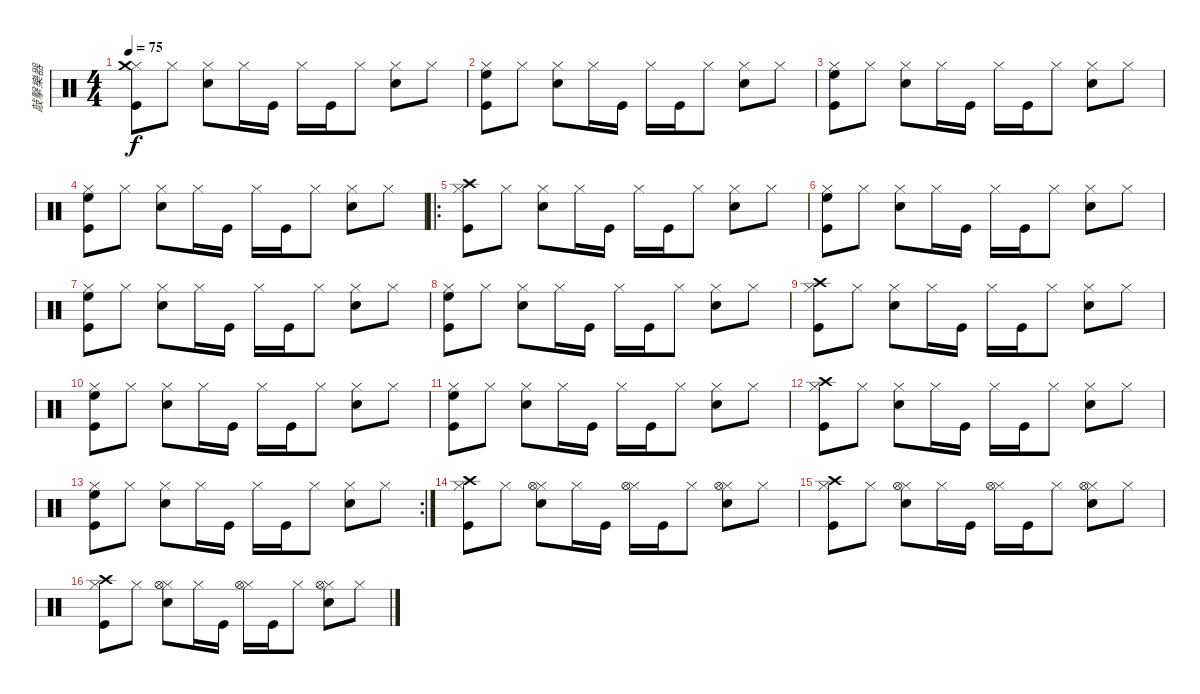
\track ("敲擊樂器" "敲擊樂器") {instrument percussion}
\staff {score}
\articulation defaults
\ts (4 4)
\tempo 75
\clef neutral
\ks c
("Hi-Hat (closed)" "Crash medium (hit)" "Kick (hit)").8{dy f} "Hi-Hat (closed)".8 ("Hi-Hat (closed)" "Snare (hit) 2").8 "Hi-Hat (closed)".16 "Kick (hit)".16 "Hi-Hat (closed)".16 "Kick (hit)".16 "Hi-Hat (closed)".8 ("Hi-Hat (closed)" "Snare (hit) 2").8 "Hi-Hat (closed)".8 |
("Hi-Hat (closed)" "High Floor Tom (hit)" "Kick (hit)").8 "Hi-Hat (closed)".8 ("Hi-Hat (closed)" "Snare (hit) 2").8 "Hi-Hat (closed)".16 "Kick (hit)".16 "Hi-Hat (closed)".16 "Kick (hit)".16 "Hi-Hat (closed)".8 ("Hi-Hat (closed)" "Snare (hit) 2").8 "Hi-Hat (closed)".8 |
("Hi-Hat (closed)" "High Floor Tom (hit)" "Kick (hit)").8 "Hi-Hat (closed)".8 ("Hi-Hat (closed)" "Snare (hit) 2").8 "Hi-Hat (closed)".16 "Kick (hit)".16 "Hi-Hat (closed)".16 "Kick (hit)".16 "Hi-Hat (closed)".8 ("Hi-Hat (closed)" "Snare (hit) 2").8 "Hi-Hat (closed)".8 |
("Hi-Hat (closed)" "High Floor Tom (hit)" "Kick (hit)").8 "Hi-Hat (closed)".8 ("Hi-Hat (closed)" "Snare (hit) 2").8 "Hi-Hat (closed)".16 "Kick (hit)".16 "Hi-Hat (closed)".16 "Kick (hit)".16 "Hi-Hat (closed)".8 ("Hi-Hat (closed)" "Snare (hit) 2").8 "Hi-Hat (closed)".8 |
\ro
("Hi-Hat (closed)" "Crash high (hit)" "Kick (hit)").8 "Hi-Hat (closed)".8 ("Hi-Hat (closed)" "Snare (hit) 2").8 "Hi-Hat (closed)".16 "Kick (hit)".16 "Hi-Hat (closed)".16 "Kick (hit)".16 "Hi-Hat (closed)".8 ("Hi-Hat (closed)" "Snare (hit) 2").8 "Hi-Hat (closed)".8 |
("Hi-Hat (closed)" "High Floor Tom (hit)" "Kick (hit)").8 "Hi-Hat (closed)".8 ("Hi-Hat (closed)" "Snare (hit) 2").8 "Hi-Hat (closed)".16 "Kick (hit)".16 "Hi-Hat (closed)".16 "Kick (hit)".16 "Hi-Hat (closed)".8 ("Hi-Hat (closed)" "Snare (hit) 2").8 "Hi-Hat (closed)".8 |
("Hi-Hat (closed)" "High Floor Tom (hit)" "Kick (hit)").8 "Hi-Hat (closed)".8 ("Hi-Hat (closed)" "Snare (hit) 2").8 "Hi-Hat (closed)".16 "Kick (hit)".16 "Hi-Hat (closed)".16 "Kick (hit)".16 "Hi-Hat (closed)".8 ("Hi-Hat (closed)" "Snare (hit) 2").8 "Hi-Hat (closed)".8 |
("Hi-Hat (closed)" "High Floor Tom (hit)" "Kick (hit)").8 "Hi-Hat (closed)".8 ("Hi-Hat (closed)" "Snare (hit) 2").8 "Hi-Hat (closed)".16 "Kick (hit)".16 "Hi-Hat (closed)".16 "Kick (hit)".16 "Hi-Hat (closed)".8 ("Hi-Hat (closed)" "Snare (hit) 2").8 "Hi-Hat (closed)".8 |
("Hi-Hat (closed)" "Crash high (hit)" "Kick (hit)").8 "Hi-Hat (closed)".8 ("Hi-Hat (closed)" "Snare (hit) 2").8 "Hi-Hat (closed)".16 "Kick (hit)".16 "Hi-Hat (closed)".16 "Kick (hit)".16 "Hi-Hat (closed)".8 ("Hi-Hat (closed)" "Snare (hit) 2").8 "Hi-Hat (closed)".8 |
("Hi-Hat (closed)" "High Floor Tom (hit)" "Kick (hit)").8 "Hi-Hat (closed)".8 ("Hi-Hat (closed)" "Snare (hit) 2").8 "Hi-Hat (closed)".16 "Kick (hit)".16 "Hi-Hat (closed)".16 "Kick (hit)".16 "Hi-Hat (closed)".8 ("Hi-Hat (closed)" "Snare (hit) 2").8 "Hi-Hat (closed)".8 |
("Hi-Hat (closed)" "High Floor Tom (hit)" "Kick (hit)").8 "Hi-Hat (closed)".8 ("Hi-Hat (closed)" "Snare (hit) 2").8 "Hi-Hat (closed)".16 "Kick (hit)".16 "Hi-Hat (closed)".16 "Kick (hit)".16 "Hi-Hat (closed)".8 ("Hi-Hat (closed)" "Snare (hit) 2").8 "Hi-Hat (closed)".8 |
("Hi-Hat (closed)" "Crash high (hit)" "Kick (hit)").8 "Hi-Hat (closed)".8 ("Hi-Hat (closed)" "Snare (hit) 2").8 "Hi-Hat (closed)".16 "Kick (hit)".16 "Hi-Hat (closed)".16 "Kick (hit)".16 "Hi-Hat (closed)".8 ("Hi-Hat (closed)" "Snare (hit) 2").8 "Hi-Hat (closed)".8 |
\rc 2
("Hi-Hat (closed)" "High Floor Tom (hit)" "Kick (hit)").8 "Hi-Hat (closed)".8 ("Hi-Hat (closed)" "Snare (hit) 2").8 "Hi-Hat (closed)".16 "Kick (hit)".16 "Hi-Hat (closed)".16 "Kick (hit)".16 "Hi-Hat (closed)".8 ("Hi-Hat (closed)" "Snare (hit) 2").8 "Hi-Hat (closed)".8 |
("Hi-Hat (closed)" "Crash high (hit)" "Kick (hit)").8 "Hi-Hat (closed)".8 ("Hi-Hat (closed)" "Snare (hit) 2" "Hi-Hat (open)").8 "Hi-Hat (closed)".16 "Kick (hit)".16 ("Hi-Hat (closed)" "Hi-Hat (open)").16 "Kick (hit)".16 "Hi-Hat (closed)".8 ("Hi-Hat (closed)" "Snare (hit) 2" "Hi-Hat (open)").8 "Hi-Hat (closed)".8 |
("Hi-Hat (closed)" "Crash high (hit)" "Kick (hit)").8 "Hi-Hat (closed)".8 ("Hi-Hat (closed)" "Snare (hit) 2" "Hi-Hat (open)").8 "Hi-Hat (closed)".16 "Kick (hit)".16 ("Hi-Hat (closed)" "Hi-Hat (open)").16 "Kick (hit)".16 "Hi-Hat (closed)".8 ("Hi-Hat (closed)" "Snare (hit) 2" "Hi-Hat (open)").8 "Hi-Hat (closed)".8 |
("Hi-Hat (closed)" "Crash high (hit)" "Kick (hit)").8 "Hi-Hat (closed)".8 ("Hi-Hat (closed)" "Snare (hit) 2" "Hi-Hat (open)").8 "Hi-Hat (closed)".16 "Kick (hit)".16 ("Hi-Hat (closed)" "Hi-Hat (open)").16 "Kick (hit)".16 "Hi-Hat (closed)".8 ("Hi-Hat (closed)" "Snare (hit) 2" "Hi-Hat (open)").8 "Hi-Hat (closed)".8
